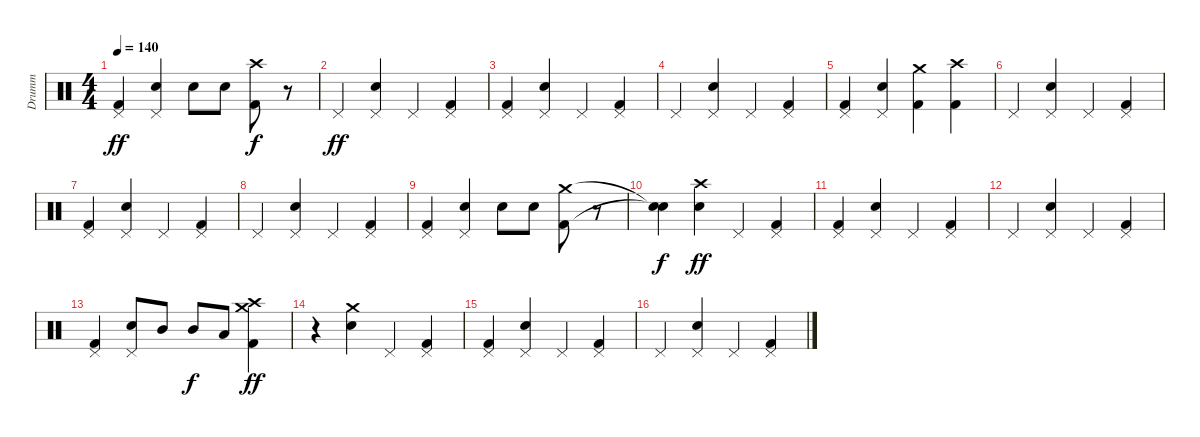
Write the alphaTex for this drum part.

\track ("Drumm" "Drumm") {instrument percussion}
\staff {score}
\articulation defaults
\ts (4 4)
\tempo 140
\clef neutral
\ks c
("Pedal Hi-Hat (hit)" "Kick (hit) 2").4{dy ff} ("Pedal Hi-Hat (hit)" "Snare (hit) 2").4 "Snare (hit) 2".8 "Snare (hit) 2".8 ("Crash high (hit)" "Kick (hit) 2").8{dy f} r.8 |
"Pedal Hi-Hat (hit)".4{dy ff} ("Pedal Hi-Hat (hit)" "Snare (hit) 2").4 "Pedal Hi-Hat (hit)".4 ("Pedal Hi-Hat (hit)" "Kick (hit) 2").4 |
("Pedal Hi-Hat (hit)" "Kick (hit) 2").4 ("Pedal Hi-Hat (hit)" "Snare (hit) 2").4 "Pedal Hi-Hat (hit)".4 ("Pedal Hi-Hat (hit)" "Kick (hit) 2").4 |
"Pedal Hi-Hat (hit)".4 ("Pedal Hi-Hat (hit)" "Snare (hit) 2").4 "Pedal Hi-Hat (hit)".4 ("Pedal Hi-Hat (hit)" "Kick (hit) 2").4 |
("Pedal Hi-Hat (hit)" "Kick (hit) 2").4 ("Pedal Hi-Hat (hit)" "Snare (hit) 2").4 ("Crash medium (hit)" "Kick (hit) 2").4 ("Crash high (hit)" "Kick (hit) 2").4 |
"Pedal Hi-Hat (hit)".4 ("Pedal Hi-Hat (hit)" "Snare (hit) 2").4 "Pedal Hi-Hat (hit)".4 ("Pedal Hi-Hat (hit)" "Kick (hit) 2").4 |
("Pedal Hi-Hat (hit)" "Kick (hit) 2").4 ("Pedal Hi-Hat (hit)" "Snare (hit) 2").4 "Pedal Hi-Hat (hit)".4 ("Pedal Hi-Hat (hit)" "Kick (hit) 2").4 |
"Pedal Hi-Hat (hit)".4 ("Pedal Hi-Hat (hit)" "Snare (hit) 2").4 "Pedal Hi-Hat (hit)".4 ("Pedal Hi-Hat (hit)" "Kick (hit) 2").4 |
("Pedal Hi-Hat (hit)" "Kick (hit) 2").4 ("Pedal Hi-Hat (hit)" "Snare (hit) 2").4 "Snare (hit) 2".8 "Snare (hit) 2".8 ("Crash medium (hit)" "Kick (hit) 2").8 r.8 |
("Snare (hit)"{t} "Snare (hit)"{t}).4{dy f} ("Crash high (hit)" "Snare (hit) 2").4{dy ff} "Pedal Hi-Hat (hit)".4 ("Pedal Hi-Hat (hit)" "Kick (hit) 2").4 |
("Pedal Hi-Hat (hit)" "Kick (hit) 2").4 ("Pedal Hi-Hat (hit)" "Snare (hit) 2").4 "Pedal Hi-Hat (hit)".4 ("Pedal Hi-Hat (hit)" "Kick (hit) 2").4 |
"Pedal Hi-Hat (hit)".4 ("Pedal Hi-Hat (hit)" "Snare (hit) 2").4 "Pedal Hi-Hat (hit)".4 ("Pedal Hi-Hat (hit)" "Kick (hit) 2").4 |
("Pedal Hi-Hat (hit)" "Kick (hit) 2").4 ("Pedal Hi-Hat (hit)" "Snare (hit) 2").8 "Mid Tom (hit)".8 "Mid Tom (hit)".8{dy f} "Low Tom (hit)".8 ("Crash high (hit)" "Crash medium (hit)" "Kick (hit) 2").4{dy ff} |
r.4 ("Crash medium (hit)" "Snare (hit) 2").4 "Pedal Hi-Hat (hit)".4 ("Pedal Hi-Hat (hit)" "Kick (hit) 2").4 |
("Pedal Hi-Hat (hit)" "Kick (hit) 2").4 ("Pedal Hi-Hat (hit)" "Snare (hit) 2").4 "Pedal Hi-Hat (hit)".4 ("Pedal Hi-Hat (hit)" "Kick (hit) 2").4 |
"Pedal Hi-Hat (hit)".4 ("Pedal Hi-Hat (hit)" "Snare (hit) 2").4 "Pedal Hi-Hat (hit)".4 ("Pedal Hi-Hat (hit)" "Kick (hit) 2").4
